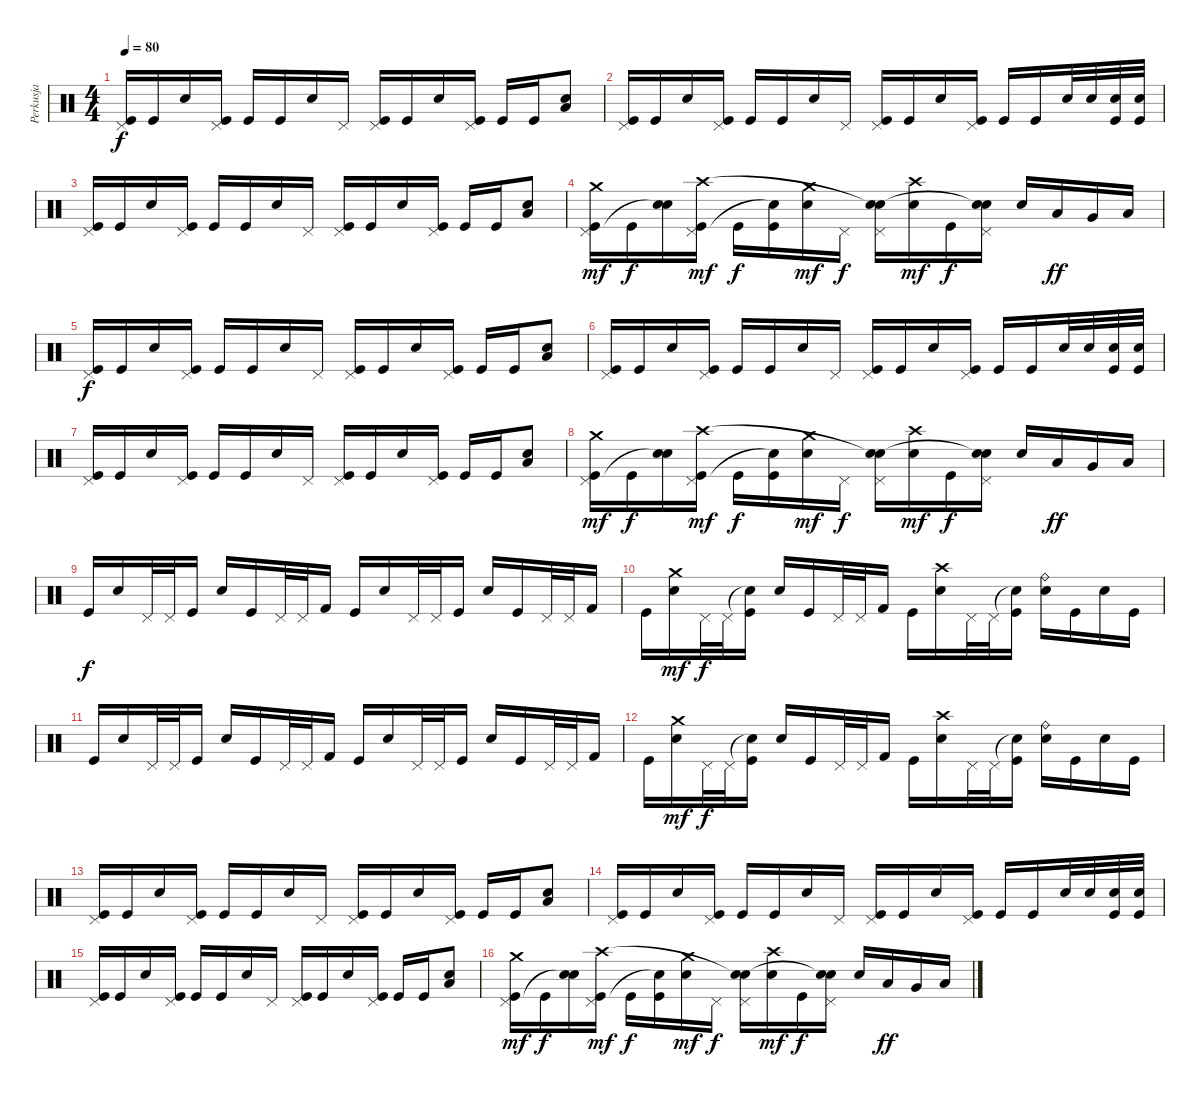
\track ("Perkusja" "Perkusja") {instrument percussion}
\staff {score}
\articulation defaults
\ts (4 4)
\tempo 80
\clef neutral
\ks c
("Kick (hit)" "Pedal Hi-Hat (hit)").16{dy f} "Kick (hit)".16 "Electric Snare (hit)".16 ("Kick (hit)" "Pedal Hi-Hat (hit)").16 "Kick (hit)".16 "Kick (hit)".16 "Electric Snare (hit)".16 "Pedal Hi-Hat (hit)".16 ("Kick (hit)" "Pedal Hi-Hat (hit)").16 "Kick (hit)".16 "Electric Snare (hit)".16 ("Kick (hit)" "Pedal Hi-Hat (hit)").16 "Kick (hit)".16 "Kick (hit)".16 ("Electric Snare (hit)" "Low Tom (hit)").8 |
("Kick (hit)" "Pedal Hi-Hat (hit)").16 "Kick (hit)".16 "Electric Snare (hit)".16 ("Kick (hit)" "Pedal Hi-Hat (hit)").16 "Kick (hit)".16 "Kick (hit)".16 "Electric Snare (hit)".16 "Pedal Hi-Hat (hit)".16 ("Kick (hit)" "Pedal Hi-Hat (hit)").16 "Kick (hit)".16 "Electric Snare (hit)".16 ("Kick (hit)" "Pedal Hi-Hat (hit)").16 "Kick (hit)".16 "Kick (hit)".16 "Electric Snare (hit)".32 "Electric Snare (hit)".32 ("Electric Snare (hit)" "Kick (hit)").32 ("Electric Snare (hit)" "Kick (hit)").32 |
("Kick (hit)" "Pedal Hi-Hat (hit)").16 "Kick (hit)".16 "Electric Snare (hit)".16 ("Kick (hit)" "Pedal Hi-Hat (hit)").16 "Kick (hit)".16 "Kick (hit)".16 "Electric Snare (hit)".16 "Pedal Hi-Hat (hit)".16 ("Kick (hit)" "Pedal Hi-Hat (hit)").16 "Kick (hit)".16 "Electric Snare (hit)".16 ("Kick (hit)" "Pedal Hi-Hat (hit)").16 "Kick (hit)".16 "Kick (hit)".16 ("Electric Snare (hit)" "Low Tom (hit)").8 |
("Kick (hit)" "Pedal Hi-Hat (hit)" "Crash medium (hit)").16{dy mf} "Kick (hit)".16{dy f} ("Electric Snare (hit)" "Snare (hit)"{t}).16 ("Kick (hit)" "Pedal Hi-Hat (hit)" "Crash high (hit)").16{dy mf} "Kick (hit)".16{dy f} ("Kick (hit)" "Snare (hit)"{t}).16 ("Electric Snare (hit)" "Crash medium (hit)").16{dy mf} "Pedal Hi-Hat (hit)".16{dy f} ("Electric Snare (hit)" "Pedal Hi-Hat (hit)" "Snare (hit)"{t}).16 ("Snare (hit) 2" "Crash high (hit)").16{dy mf} "Kick (hit)".16{dy f} ("Electric Snare (hit)" "Pedal Hi-Hat (hit)" "Snare (hit)"{t}).16 "Snare (hit) 2".16 "Low Tom (hit)".16{dy ff} "Very Low Tom (hit)".16 "Low Floor Tom (hit)".16 |
("Kick (hit)" "Pedal Hi-Hat (hit)").16{dy f} "Kick (hit)".16 "Electric Snare (hit)".16 ("Kick (hit)" "Pedal Hi-Hat (hit)").16 "Kick (hit)".16 "Kick (hit)".16 "Electric Snare (hit)".16 "Pedal Hi-Hat (hit)".16 ("Kick (hit)" "Pedal Hi-Hat (hit)").16 "Kick (hit)".16 "Electric Snare (hit)".16 ("Kick (hit)" "Pedal Hi-Hat (hit)").16 "Kick (hit)".16 "Kick (hit)".16 ("Electric Snare (hit)" "Low Tom (hit)").8 |
("Kick (hit)" "Pedal Hi-Hat (hit)").16 "Kick (hit)".16 "Electric Snare (hit)".16 ("Kick (hit)" "Pedal Hi-Hat (hit)").16 "Kick (hit)".16 "Kick (hit)".16 "Electric Snare (hit)".16 "Pedal Hi-Hat (hit)".16 ("Kick (hit)" "Pedal Hi-Hat (hit)").16 "Kick (hit)".16 "Electric Snare (hit)".16 ("Kick (hit)" "Pedal Hi-Hat (hit)").16 "Kick (hit)".16 "Kick (hit)".16 "Electric Snare (hit)".32 "Electric Snare (hit)".32 ("Electric Snare (hit)" "Kick (hit)").32 ("Electric Snare (hit)" "Kick (hit)").32 |
("Kick (hit)" "Pedal Hi-Hat (hit)").16 "Kick (hit)".16 "Electric Snare (hit)".16 ("Kick (hit)" "Pedal Hi-Hat (hit)").16 "Kick (hit)".16 "Kick (hit)".16 "Electric Snare (hit)".16 "Pedal Hi-Hat (hit)".16 ("Kick (hit)" "Pedal Hi-Hat (hit)").16 "Kick (hit)".16 "Electric Snare (hit)".16 ("Kick (hit)" "Pedal Hi-Hat (hit)").16 "Kick (hit)".16 "Kick (hit)".16 ("Electric Snare (hit)" "Low Tom (hit)").8 |
("Kick (hit)" "Pedal Hi-Hat (hit)" "Crash medium (hit)").16{dy mf} "Kick (hit)".16{dy f} ("Electric Snare (hit)" "Snare (hit)"{t}).16 ("Kick (hit)" "Pedal Hi-Hat (hit)" "Crash high (hit)").16{dy mf} "Kick (hit)".16{dy f} ("Kick (hit)" "Snare (hit)"{t}).16 ("Electric Snare (hit)" "Crash medium (hit)").16{dy mf} "Pedal Hi-Hat (hit)".16{dy f} ("Electric Snare (hit)" "Pedal Hi-Hat (hit)" "Snare (hit)"{t}).16 ("Snare (hit) 2" "Crash high (hit)").16{dy mf} "Kick (hit)".16{dy f} ("Electric Snare (hit)" "Pedal Hi-Hat (hit)" "Snare (hit)"{t}).16 "Snare (hit) 2".16 "Low Tom (hit)".16{dy ff} "Very Low Tom (hit)".16 "Low Floor Tom (hit)".16 |
"Kick (hit)".16{dy f} "Electric Snare (hit)".16 "Pedal Hi-Hat (hit)".32 "Pedal Hi-Hat (hit)".32 "Kick (hit)".16 "Electric Snare (hit)".16 "Kick (hit)".16 "Pedal Hi-Hat (hit)".32 "Pedal Hi-Hat (hit)".32 "Kick (hit) 2".16 "Kick (hit)".16 "Electric Snare (hit)".16 "Pedal Hi-Hat (hit)".32 "Pedal Hi-Hat (hit)".32 "Kick (hit)".16 "Electric Snare (hit)".16 "Kick (hit)".16 "Pedal Hi-Hat (hit)".32 "Pedal Hi-Hat (hit)".32 "Kick (hit) 2".16 |
"Kick (hit)".16 ("Electric Snare (hit)" "Crash medium (hit)").16{dy mf} "Pedal Hi-Hat (hit)".32{dy f} "Pedal Hi-Hat (hit)".32 ("Snare (hit)"{t} "Kick (hit)").16 "Electric Snare (hit)".16 "Kick (hit)".16 "Pedal Hi-Hat (hit)".32 "Pedal Hi-Hat (hit)".32 "Kick (hit) 2".16 "Kick (hit)".16 ("Electric Snare (hit)" "Crash high (hit)").16 "Pedal Hi-Hat (hit)".32 "Pedal Hi-Hat (hit)".32 ("Snare (hit)"{t} "Kick (hit)").16 ("Electric Snare (hit)" "Ride (bell)").16 "Kick (hit)".16 "Electric Snare (hit)".16 "Kick (hit)".16 |
"Kick (hit)".16 "Electric Snare (hit)".16 "Pedal Hi-Hat (hit)".32 "Pedal Hi-Hat (hit)".32 "Kick (hit)".16 "Electric Snare (hit)".16 "Kick (hit)".16 "Pedal Hi-Hat (hit)".32 "Pedal Hi-Hat (hit)".32 "Kick (hit) 2".16 "Kick (hit)".16 "Electric Snare (hit)".16 "Pedal Hi-Hat (hit)".32 "Pedal Hi-Hat (hit)".32 "Kick (hit)".16 "Electric Snare (hit)".16 "Kick (hit)".16 "Pedal Hi-Hat (hit)".32 "Pedal Hi-Hat (hit)".32 "Kick (hit) 2".16 |
"Kick (hit)".16 ("Electric Snare (hit)" "Crash medium (hit)").16{dy mf} "Pedal Hi-Hat (hit)".32{dy f} "Pedal Hi-Hat (hit)".32 ("Snare (hit)"{t} "Kick (hit)").16 "Electric Snare (hit)".16 "Kick (hit)".16 "Pedal Hi-Hat (hit)".32 "Pedal Hi-Hat (hit)".32 "Kick (hit) 2".16 "Kick (hit)".16 ("Electric Snare (hit)" "Crash high (hit)").16 "Pedal Hi-Hat (hit)".32 "Pedal Hi-Hat (hit)".32 ("Snare (hit)"{t} "Kick (hit)").16 ("Electric Snare (hit)" "Ride (bell)").16 "Kick (hit)".16 "Electric Snare (hit)".16 "Kick (hit)".16 |
("Kick (hit)" "Pedal Hi-Hat (hit)").16 "Kick (hit)".16 "Electric Snare (hit)".16 ("Kick (hit)" "Pedal Hi-Hat (hit)").16 "Kick (hit)".16 "Kick (hit)".16 "Electric Snare (hit)".16 "Pedal Hi-Hat (hit)".16 ("Kick (hit)" "Pedal Hi-Hat (hit)").16 "Kick (hit)".16 "Electric Snare (hit)".16 ("Kick (hit)" "Pedal Hi-Hat (hit)").16 "Kick (hit)".16 "Kick (hit)".16 ("Electric Snare (hit)" "Low Tom (hit)").8 |
("Kick (hit)" "Pedal Hi-Hat (hit)").16 "Kick (hit)".16 "Electric Snare (hit)".16 ("Kick (hit)" "Pedal Hi-Hat (hit)").16 "Kick (hit)".16 "Kick (hit)".16 "Electric Snare (hit)".16 "Pedal Hi-Hat (hit)".16 ("Kick (hit)" "Pedal Hi-Hat (hit)").16 "Kick (hit)".16 "Electric Snare (hit)".16 ("Kick (hit)" "Pedal Hi-Hat (hit)").16 "Kick (hit)".16 "Kick (hit)".16 "Electric Snare (hit)".32 "Electric Snare (hit)".32 ("Electric Snare (hit)" "Kick (hit)").32 ("Electric Snare (hit)" "Kick (hit)").32 |
("Kick (hit)" "Pedal Hi-Hat (hit)").16 "Kick (hit)".16 "Electric Snare (hit)".16 ("Kick (hit)" "Pedal Hi-Hat (hit)").16 "Kick (hit)".16 "Kick (hit)".16 "Electric Snare (hit)".16 "Pedal Hi-Hat (hit)".16 ("Kick (hit)" "Pedal Hi-Hat (hit)").16 "Kick (hit)".16 "Electric Snare (hit)".16 ("Kick (hit)" "Pedal Hi-Hat (hit)").16 "Kick (hit)".16 "Kick (hit)".16 ("Electric Snare (hit)" "Low Tom (hit)").8 |
("Kick (hit)" "Pedal Hi-Hat (hit)" "Crash medium (hit)").16{dy mf} "Kick (hit)".16{dy f} ("Electric Snare (hit)" "Snare (hit)"{t}).16 ("Kick (hit)" "Pedal Hi-Hat (hit)" "Crash high (hit)").16{dy mf} "Kick (hit)".16{dy f} ("Kick (hit)" "Snare (hit)"{t}).16 ("Electric Snare (hit)" "Crash medium (hit)").16{dy mf} "Pedal Hi-Hat (hit)".16{dy f} ("Electric Snare (hit)" "Pedal Hi-Hat (hit)" "Snare (hit)"{t}).16 ("Snare (hit) 2" "Crash high (hit)").16{dy mf} "Kick (hit)".16{dy f} ("Electric Snare (hit)" "Pedal Hi-Hat (hit)" "Snare (hit)"{t}).16 "Snare (hit) 2".16 "Low Tom (hit)".16{dy ff} "Very Low Tom (hit)".16 "Low Floor Tom (hit)".16
